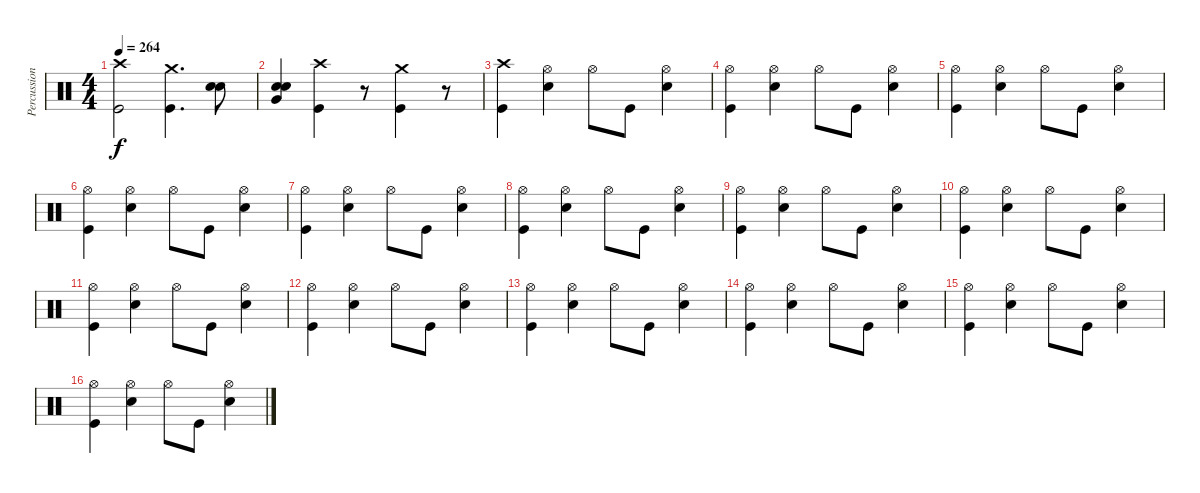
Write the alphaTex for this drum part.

\track ("Percussion" "Percussion") {instrument percussion}
\staff {score}
\articulation defaults
\ts (4 4)
\tempo 264
\clef neutral
\ks c
("Crash high (hit)" "Kick (hit)").2{dy f} ("Crash medium (hit)" "Kick (hit)").4{d} ("Electric Snare (hit)" "Snare (hit) 2").8 |
("Very Low Tom (hit)" "Electric Snare (hit)" "Snare (hit) 2").4 ("Crash high (hit)" "Kick (hit)").4 r.8 ("Crash medium (hit)" "Kick (hit)").4 r.8 |
("Crash high (hit)" "Kick (hit)").4 ("Hi-Hat (open)" "Snare (hit) 2").4 "Hi-Hat (open)".8 "Kick (hit)".8 ("Hi-Hat (open)" "Snare (hit) 2").4 |
("Hi-Hat (open)" "Kick (hit)").4 ("Hi-Hat (open)" "Snare (hit) 2").4 "Hi-Hat (open)".8 "Kick (hit)".8 ("Hi-Hat (open)" "Snare (hit) 2").4 |
("Hi-Hat (open)" "Kick (hit)").4 ("Hi-Hat (open)" "Snare (hit) 2").4 "Hi-Hat (open)".8 "Kick (hit)".8 ("Hi-Hat (open)" "Snare (hit) 2").4 |
("Hi-Hat (open)" "Kick (hit)").4 ("Hi-Hat (open)" "Snare (hit) 2").4 "Hi-Hat (open)".8 "Kick (hit)".8 ("Hi-Hat (open)" "Snare (hit) 2").4 |
("Hi-Hat (open)" "Kick (hit)").4 ("Hi-Hat (open)" "Snare (hit) 2").4 "Hi-Hat (open)".8 "Kick (hit)".8 ("Hi-Hat (open)" "Snare (hit) 2").4 |
("Hi-Hat (open)" "Kick (hit)").4 ("Hi-Hat (open)" "Snare (hit) 2").4 "Hi-Hat (open)".8 "Kick (hit)".8 ("Hi-Hat (open)" "Snare (hit) 2").4 |
("Hi-Hat (open)" "Kick (hit)").4 ("Hi-Hat (open)" "Snare (hit) 2").4 "Hi-Hat (open)".8 "Kick (hit)".8 ("Hi-Hat (open)" "Snare (hit) 2").4 |
("Hi-Hat (open)" "Kick (hit)").4 ("Hi-Hat (open)" "Snare (hit) 2").4 "Hi-Hat (open)".8 "Kick (hit)".8 ("Hi-Hat (open)" "Snare (hit) 2").4 |
("Hi-Hat (open)" "Kick (hit)").4 ("Hi-Hat (open)" "Snare (hit) 2").4 "Hi-Hat (open)".8 "Kick (hit)".8 ("Hi-Hat (open)" "Snare (hit) 2").4 |
("Hi-Hat (open)" "Kick (hit)").4 ("Hi-Hat (open)" "Snare (hit) 2").4 "Hi-Hat (open)".8 "Kick (hit)".8 ("Hi-Hat (open)" "Snare (hit) 2").4 |
("Hi-Hat (open)" "Kick (hit)").4 ("Hi-Hat (open)" "Snare (hit) 2").4 "Hi-Hat (open)".8 "Kick (hit)".8 ("Hi-Hat (open)" "Snare (hit) 2").4 |
("Hi-Hat (open)" "Kick (hit)").4 ("Hi-Hat (open)" "Snare (hit) 2").4 "Hi-Hat (open)".8 "Kick (hit)".8 ("Hi-Hat (open)" "Snare (hit) 2").4 |
("Hi-Hat (open)" "Kick (hit)").4 ("Hi-Hat (open)" "Snare (hit) 2").4 "Hi-Hat (open)".8 "Kick (hit)".8 ("Hi-Hat (open)" "Snare (hit) 2").4 |
("Hi-Hat (open)" "Kick (hit)").4 ("Hi-Hat (open)" "Snare (hit) 2").4 "Hi-Hat (open)".8 "Kick (hit)".8 ("Hi-Hat (open)" "Snare (hit) 2").4
